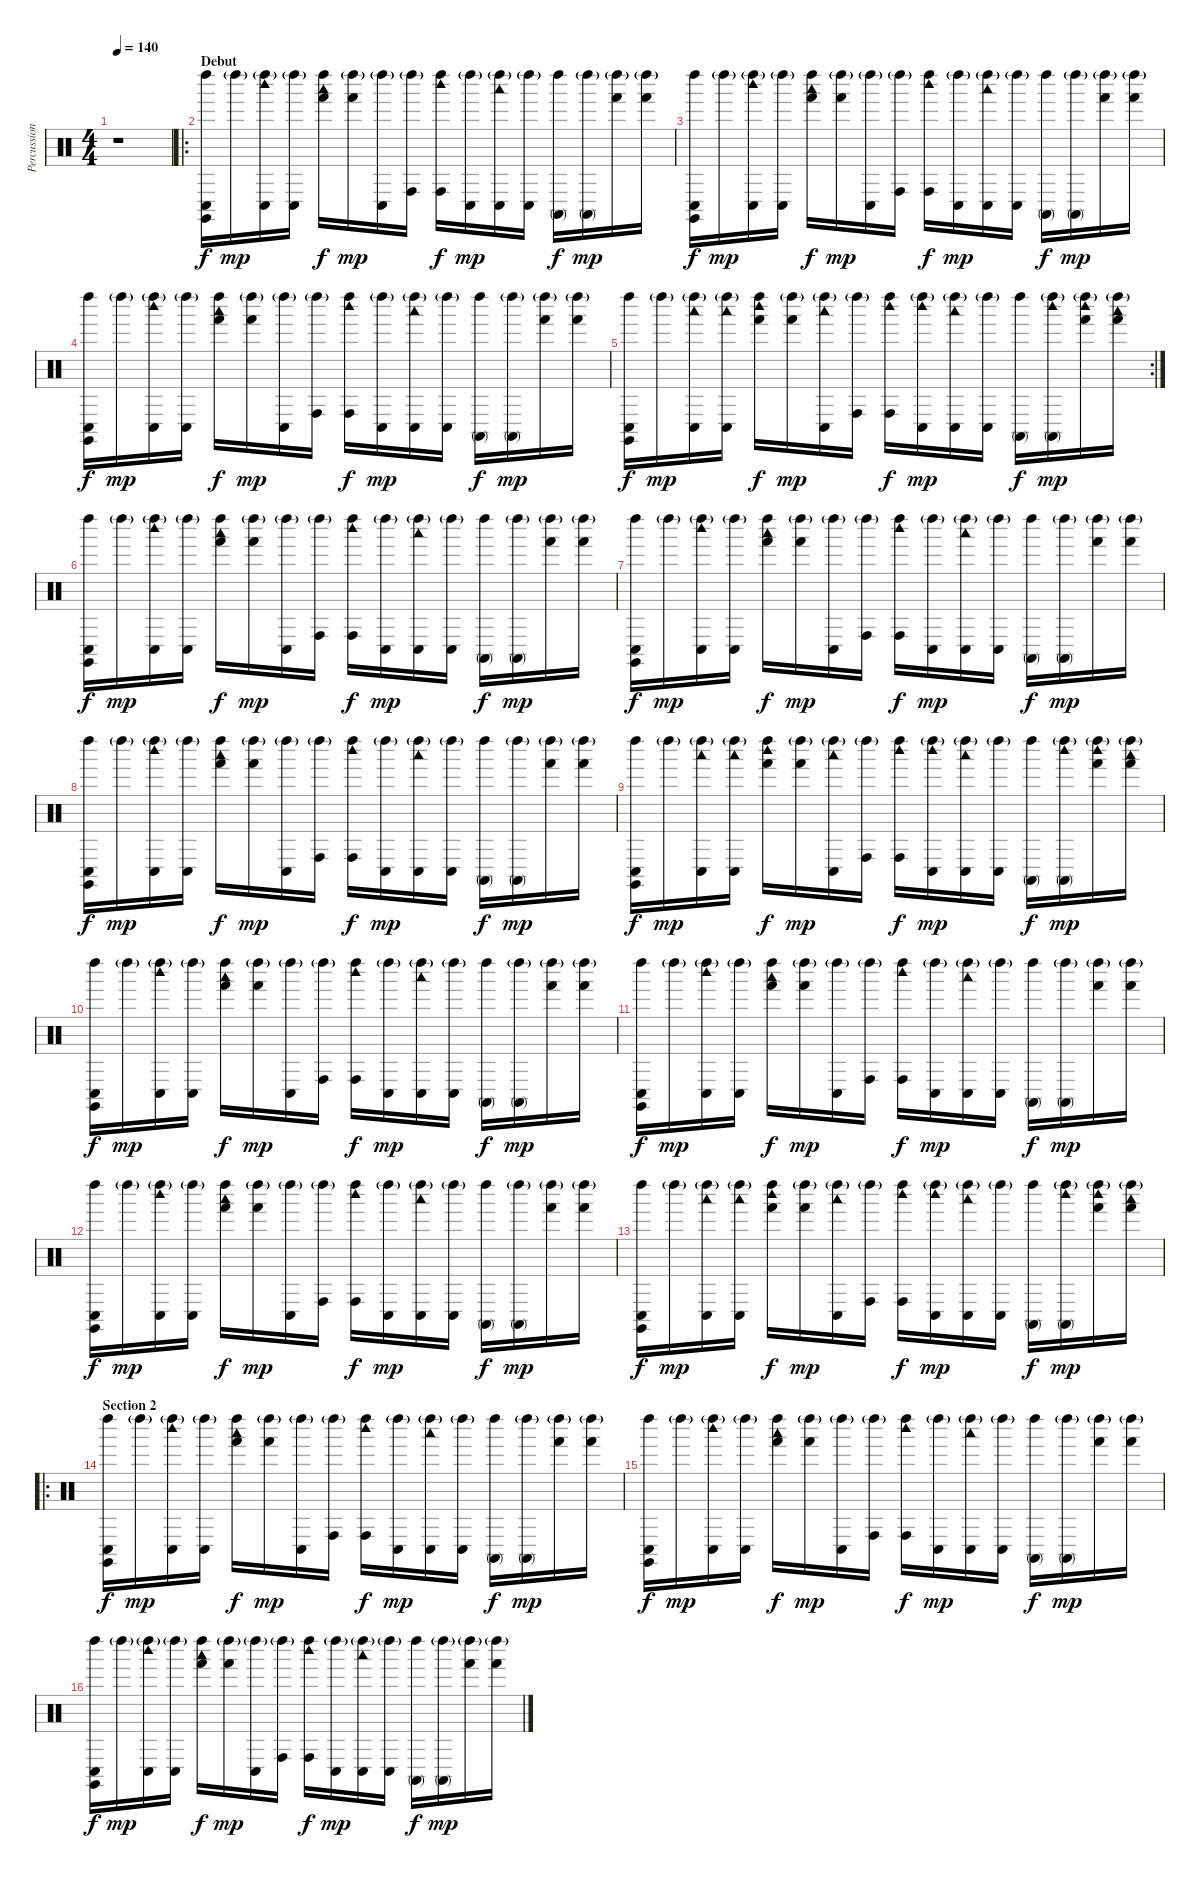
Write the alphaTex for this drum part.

\track ("Percussions" "Percussion") {instrument percussion}
\staff {score}
\articulation defaults
\ts (4 4)
\tempo 140
\clef neutral
\ks c
r.1{dy f} |
\ro
\section ("" "Debut")
("Conga low (hit)" "Claves (hit)" "Left Maraca (hit)").16 "Left Maraca (hit)"{g}.16{dy mp} ("Conga low (hit)" "Woodblock high (hit)" "Left Maraca (hit)"{g}).16 ("Conga low (hit)" "Left Maraca (hit)"{g}).16 ("Hand (hit)" "Woodblock low (hit)" "Left Maraca (hit)").16{dy f} ("Hand (hit)" "Left Maraca (hit)"{g}).16{dy mp} ("Conga low (hit)" "Left Maraca (hit)"{g}).16 ("Conga high (hit)" "Left Maraca (hit)"{g}).16 ("Conga high (hit)" "Woodblock high (hit)" "Left Maraca (hit)").16{dy f} ("Conga low (hit)" "Left Maraca (hit)"{g}).16{dy mp} ("Conga low (hit)" "Woodblock low (hit)" "Left Maraca (hit)"{g}).16 ("Conga low (hit)" "Left Maraca (hit)"{g}).16 ("Conga high (mute)" "Left Maraca (hit)").16{dy f} ("Conga high (mute)" "Left Maraca (hit)"{g}).16{dy mp} ("Hand (hit)" "Left Maraca (hit)"{g}).16 ("Hand (hit)" "Left Maraca (hit)"{g}).16 |
("Conga low (hit)" "Claves (hit)" "Left Maraca (hit)").16{dy f} "Left Maraca (hit)"{g}.16{dy mp} ("Conga low (hit)" "Woodblock high (hit)" "Left Maraca (hit)"{g}).16 ("Conga low (hit)" "Left Maraca (hit)"{g}).16 ("Hand (hit)" "Woodblock low (hit)" "Left Maraca (hit)").16{dy f} ("Hand (hit)" "Left Maraca (hit)"{g}).16{dy mp} ("Conga low (hit)" "Left Maraca (hit)"{g}).16 ("Conga high (hit)" "Left Maraca (hit)"{g}).16 ("Conga high (hit)" "Woodblock high (hit)" "Left Maraca (hit)").16{dy f} ("Conga low (hit)" "Left Maraca (hit)"{g}).16{dy mp} ("Conga low (hit)" "Woodblock low (hit)" "Left Maraca (hit)"{g}).16 ("Conga low (hit)" "Left Maraca (hit)"{g}).16 ("Conga high (mute)" "Left Maraca (hit)").16{dy f} ("Conga high (mute)" "Left Maraca (hit)"{g}).16{dy mp} ("Hand (hit)" "Left Maraca (hit)"{g}).16 ("Hand (hit)" "Left Maraca (hit)"{g}).16 |
("Conga low (hit)" "Claves (hit)" "Left Maraca (hit)").16{dy f} "Left Maraca (hit)"{g}.16{dy mp} ("Conga low (hit)" "Woodblock high (hit)" "Left Maraca (hit)"{g}).16 ("Conga low (hit)" "Left Maraca (hit)"{g}).16 ("Hand (hit)" "Woodblock low (hit)" "Left Maraca (hit)").16{dy f} ("Hand (hit)" "Left Maraca (hit)"{g}).16{dy mp} ("Conga low (hit)" "Left Maraca (hit)"{g}).16 ("Conga high (hit)" "Left Maraca (hit)"{g}).16 ("Conga high (hit)" "Woodblock high (hit)" "Left Maraca (hit)").16{dy f} ("Conga low (hit)" "Left Maraca (hit)"{g}).16{dy mp} ("Conga low (hit)" "Woodblock low (hit)" "Left Maraca (hit)"{g}).16 ("Conga low (hit)" "Left Maraca (hit)"{g}).16 ("Conga high (mute)" "Left Maraca (hit)").16{dy f} ("Conga high (mute)" "Left Maraca (hit)"{g}).16{dy mp} ("Hand (hit)" "Left Maraca (hit)"{g}).16 ("Hand (hit)" "Left Maraca (hit)"{g}).16 |
\rc 2
("Conga low (hit)" "Claves (hit)" "Left Maraca (hit)").16{dy f} "Left Maraca (hit)"{g}.16{dy mp} ("Conga low (hit)" "Woodblock low (hit)" "Left Maraca (hit)"{g}).16 ("Conga low (hit)" "Woodblock low (hit)" "Left Maraca (hit)"{g}).16 ("Hand (hit)" "Woodblock high (hit)" "Left Maraca (hit)").16{dy f} ("Hand (hit)" "Left Maraca (hit)"{g}).16{dy mp} ("Conga low (hit)" "Woodblock low (hit)" "Left Maraca (hit)"{g}).16 ("Conga high (hit)" "Left Maraca (hit)"{g}).16 ("Conga high (hit)" "Woodblock high (hit)" "Left Maraca (hit)").16{dy f} ("Conga low (hit)" "Woodblock high (hit)" "Left Maraca (hit)"{g}).16{dy mp} ("Conga low (hit)" "Woodblock low (hit)" "Left Maraca (hit)"{g}).16 ("Conga low (hit)" "Left Maraca (hit)"{g}).16 ("Conga high (mute)" "Left Maraca (hit)").16{dy f} ("Conga high (mute)" "Woodblock high (hit)" "Left Maraca (hit)"{g}).16{dy mp} ("Hand (hit)" "Woodblock high (hit)" "Left Maraca (hit)"{g}).16 ("Hand (hit)" "Woodblock low (hit)" "Left Maraca (hit)"{g}).16 |
("Conga low (hit)" "Claves (hit)" "Left Maraca (hit)").16{dy f} "Left Maraca (hit)"{g}.16{dy mp} ("Conga low (hit)" "Woodblock high (hit)" "Left Maraca (hit)"{g}).16 ("Conga low (hit)" "Left Maraca (hit)"{g}).16 ("Hand (hit)" "Woodblock low (hit)" "Left Maraca (hit)").16{dy f} ("Hand (hit)" "Left Maraca (hit)"{g}).16{dy mp} ("Conga low (hit)" "Left Maraca (hit)"{g}).16 ("Conga high (hit)" "Left Maraca (hit)"{g}).16 ("Conga high (hit)" "Woodblock high (hit)" "Left Maraca (hit)").16{dy f} ("Conga low (hit)" "Left Maraca (hit)"{g}).16{dy mp} ("Conga low (hit)" "Woodblock low (hit)" "Left Maraca (hit)"{g}).16 ("Conga low (hit)" "Left Maraca (hit)"{g}).16 ("Conga high (mute)" "Left Maraca (hit)").16{dy f} ("Conga high (mute)" "Left Maraca (hit)"{g}).16{dy mp} ("Hand (hit)" "Left Maraca (hit)"{g}).16 ("Hand (hit)" "Left Maraca (hit)"{g}).16 |
("Conga low (hit)" "Claves (hit)" "Left Maraca (hit)").16{dy f} "Left Maraca (hit)"{g}.16{dy mp} ("Conga low (hit)" "Woodblock high (hit)" "Left Maraca (hit)"{g}).16 ("Conga low (hit)" "Left Maraca (hit)"{g}).16 ("Hand (hit)" "Woodblock low (hit)" "Left Maraca (hit)").16{dy f} ("Hand (hit)" "Left Maraca (hit)"{g}).16{dy mp} ("Conga low (hit)" "Left Maraca (hit)"{g}).16 ("Conga high (hit)" "Left Maraca (hit)"{g}).16 ("Conga high (hit)" "Woodblock high (hit)" "Left Maraca (hit)").16{dy f} ("Conga low (hit)" "Left Maraca (hit)"{g}).16{dy mp} ("Conga low (hit)" "Woodblock low (hit)" "Left Maraca (hit)"{g}).16 ("Conga low (hit)" "Left Maraca (hit)"{g}).16 ("Conga high (mute)" "Left Maraca (hit)").16{dy f} ("Conga high (mute)" "Left Maraca (hit)"{g}).16{dy mp} ("Hand (hit)" "Left Maraca (hit)"{g}).16 ("Hand (hit)" "Left Maraca (hit)"{g}).16 |
("Conga low (hit)" "Claves (hit)" "Left Maraca (hit)").16{dy f} "Left Maraca (hit)"{g}.16{dy mp} ("Conga low (hit)" "Woodblock high (hit)" "Left Maraca (hit)"{g}).16 ("Conga low (hit)" "Left Maraca (hit)"{g}).16 ("Hand (hit)" "Woodblock low (hit)" "Left Maraca (hit)").16{dy f} ("Hand (hit)" "Left Maraca (hit)"{g}).16{dy mp} ("Conga low (hit)" "Left Maraca (hit)"{g}).16 ("Conga high (hit)" "Left Maraca (hit)"{g}).16 ("Conga high (hit)" "Woodblock high (hit)" "Left Maraca (hit)").16{dy f} ("Conga low (hit)" "Left Maraca (hit)"{g}).16{dy mp} ("Conga low (hit)" "Woodblock low (hit)" "Left Maraca (hit)"{g}).16 ("Conga low (hit)" "Left Maraca (hit)"{g}).16 ("Conga high (mute)" "Left Maraca (hit)").16{dy f} ("Conga high (mute)" "Left Maraca (hit)"{g}).16{dy mp} ("Hand (hit)" "Left Maraca (hit)"{g}).16 ("Hand (hit)" "Left Maraca (hit)"{g}).16 |
("Conga low (hit)" "Claves (hit)" "Left Maraca (hit)").16{dy f} "Left Maraca (hit)"{g}.16{dy mp} ("Conga low (hit)" "Woodblock low (hit)" "Left Maraca (hit)"{g}).16 ("Conga low (hit)" "Woodblock low (hit)" "Left Maraca (hit)"{g}).16 ("Hand (hit)" "Woodblock high (hit)" "Left Maraca (hit)").16{dy f} ("Hand (hit)" "Left Maraca (hit)"{g}).16{dy mp} ("Conga low (hit)" "Woodblock low (hit)" "Left Maraca (hit)"{g}).16 ("Conga high (hit)" "Left Maraca (hit)"{g}).16 ("Conga high (hit)" "Woodblock high (hit)" "Left Maraca (hit)").16{dy f} ("Conga low (hit)" "Woodblock high (hit)" "Left Maraca (hit)"{g}).16{dy mp} ("Conga low (hit)" "Woodblock low (hit)" "Left Maraca (hit)"{g}).16 ("Conga low (hit)" "Left Maraca (hit)"{g}).16 ("Conga high (mute)" "Left Maraca (hit)").16{dy f} ("Conga high (mute)" "Woodblock high (hit)" "Left Maraca (hit)"{g}).16{dy mp} ("Hand (hit)" "Woodblock high (hit)" "Left Maraca (hit)"{g}).16 ("Hand (hit)" "Woodblock low (hit)" "Left Maraca (hit)"{g}).16 |
("Conga low (hit)" "Claves (hit)" "Left Maraca (hit)").16{dy f} "Left Maraca (hit)"{g}.16{dy mp} ("Conga low (hit)" "Woodblock high (hit)" "Left Maraca (hit)"{g}).16 ("Conga low (hit)" "Left Maraca (hit)"{g}).16 ("Hand (hit)" "Woodblock low (hit)" "Left Maraca (hit)").16{dy f} ("Hand (hit)" "Left Maraca (hit)"{g}).16{dy mp} ("Conga low (hit)" "Left Maraca (hit)"{g}).16 ("Conga high (hit)" "Left Maraca (hit)"{g}).16 ("Conga high (hit)" "Woodblock high (hit)" "Left Maraca (hit)").16{dy f} ("Conga low (hit)" "Left Maraca (hit)"{g}).16{dy mp} ("Conga low (hit)" "Woodblock low (hit)" "Left Maraca (hit)"{g}).16 ("Conga low (hit)" "Left Maraca (hit)"{g}).16 ("Conga high (mute)" "Left Maraca (hit)").16{dy f} ("Conga high (mute)" "Left Maraca (hit)"{g}).16{dy mp} ("Hand (hit)" "Left Maraca (hit)"{g}).16 ("Hand (hit)" "Left Maraca (hit)"{g}).16 |
("Conga low (hit)" "Claves (hit)" "Left Maraca (hit)").16{dy f} "Left Maraca (hit)"{g}.16{dy mp} ("Conga low (hit)" "Woodblock high (hit)" "Left Maraca (hit)"{g}).16 ("Conga low (hit)" "Left Maraca (hit)"{g}).16 ("Hand (hit)" "Woodblock low (hit)" "Left Maraca (hit)").16{dy f} ("Hand (hit)" "Left Maraca (hit)"{g}).16{dy mp} ("Conga low (hit)" "Left Maraca (hit)"{g}).16 ("Conga high (hit)" "Left Maraca (hit)"{g}).16 ("Conga high (hit)" "Woodblock high (hit)" "Left Maraca (hit)").16{dy f} ("Conga low (hit)" "Left Maraca (hit)"{g}).16{dy mp} ("Conga low (hit)" "Woodblock low (hit)" "Left Maraca (hit)"{g}).16 ("Conga low (hit)" "Left Maraca (hit)"{g}).16 ("Conga high (mute)" "Left Maraca (hit)").16{dy f} ("Conga high (mute)" "Left Maraca (hit)"{g}).16{dy mp} ("Hand (hit)" "Left Maraca (hit)"{g}).16 ("Hand (hit)" "Left Maraca (hit)"{g}).16 |
("Conga low (hit)" "Claves (hit)" "Left Maraca (hit)").16{dy f} "Left Maraca (hit)"{g}.16{dy mp} ("Conga low (hit)" "Woodblock high (hit)" "Left Maraca (hit)"{g}).16 ("Conga low (hit)" "Left Maraca (hit)"{g}).16 ("Hand (hit)" "Woodblock low (hit)" "Left Maraca (hit)").16{dy f} ("Hand (hit)" "Left Maraca (hit)"{g}).16{dy mp} ("Conga low (hit)" "Left Maraca (hit)"{g}).16 ("Conga high (hit)" "Left Maraca (hit)"{g}).16 ("Conga high (hit)" "Woodblock high (hit)" "Left Maraca (hit)").16{dy f} ("Conga low (hit)" "Left Maraca (hit)"{g}).16{dy mp} ("Conga low (hit)" "Woodblock low (hit)" "Left Maraca (hit)"{g}).16 ("Conga low (hit)" "Left Maraca (hit)"{g}).16 ("Conga high (mute)" "Left Maraca (hit)").16{dy f} ("Conga high (mute)" "Left Maraca (hit)"{g}).16{dy mp} ("Hand (hit)" "Left Maraca (hit)"{g}).16 ("Hand (hit)" "Left Maraca (hit)"{g}).16 |
("Conga low (hit)" "Claves (hit)" "Left Maraca (hit)").16{dy f} "Left Maraca (hit)"{g}.16{dy mp} ("Conga low (hit)" "Woodblock low (hit)" "Left Maraca (hit)"{g}).16 ("Conga low (hit)" "Woodblock low (hit)" "Left Maraca (hit)"{g}).16 ("Hand (hit)" "Woodblock high (hit)" "Left Maraca (hit)").16{dy f} ("Hand (hit)" "Left Maraca (hit)"{g}).16{dy mp} ("Conga low (hit)" "Woodblock low (hit)" "Left Maraca (hit)"{g}).16 ("Conga high (hit)" "Left Maraca (hit)"{g}).16 ("Conga high (hit)" "Woodblock high (hit)" "Left Maraca (hit)").16{dy f} ("Conga low (hit)" "Woodblock high (hit)" "Left Maraca (hit)"{g}).16{dy mp} ("Conga low (hit)" "Woodblock low (hit)" "Left Maraca (hit)"{g}).16 ("Conga low (hit)" "Left Maraca (hit)"{g}).16 ("Conga high (mute)" "Left Maraca (hit)").16{dy f} ("Conga high (mute)" "Woodblock high (hit)" "Left Maraca (hit)"{g}).16{dy mp} ("Hand (hit)" "Woodblock high (hit)" "Left Maraca (hit)"{g}).16 ("Hand (hit)" "Woodblock low (hit)" "Left Maraca (hit)"{g}).16 |
\ro
\section ("" "Section 2")
("Conga low (hit)" "Claves (hit)" "Left Maraca (hit)").16{dy f} "Left Maraca (hit)"{g}.16{dy mp} ("Conga low (hit)" "Woodblock high (hit)" "Left Maraca (hit)"{g}).16 ("Conga low (hit)" "Left Maraca (hit)"{g}).16 ("Hand (hit)" "Woodblock low (hit)" "Left Maraca (hit)").16{dy f} ("Hand (hit)" "Left Maraca (hit)"{g}).16{dy mp} ("Conga low (hit)" "Left Maraca (hit)"{g}).16 ("Conga high (hit)" "Left Maraca (hit)"{g}).16 ("Conga high (hit)" "Woodblock high (hit)" "Left Maraca (hit)").16{dy f} ("Conga low (hit)" "Left Maraca (hit)"{g}).16{dy mp} ("Conga low (hit)" "Woodblock low (hit)" "Left Maraca (hit)"{g}).16 ("Conga low (hit)" "Left Maraca (hit)"{g}).16 ("Conga high (mute)" "Left Maraca (hit)").16{dy f} ("Conga high (mute)" "Left Maraca (hit)"{g}).16{dy mp} ("Hand (hit)" "Left Maraca (hit)"{g}).16 ("Hand (hit)" "Left Maraca (hit)"{g}).16 |
("Conga low (hit)" "Claves (hit)" "Left Maraca (hit)").16{dy f} "Left Maraca (hit)"{g}.16{dy mp} ("Conga low (hit)" "Woodblock high (hit)" "Left Maraca (hit)"{g}).16 ("Conga low (hit)" "Left Maraca (hit)"{g}).16 ("Hand (hit)" "Woodblock low (hit)" "Left Maraca (hit)").16{dy f} ("Hand (hit)" "Left Maraca (hit)"{g}).16{dy mp} ("Conga low (hit)" "Left Maraca (hit)"{g}).16 ("Conga high (hit)" "Left Maraca (hit)"{g}).16 ("Conga high (hit)" "Woodblock high (hit)" "Left Maraca (hit)").16{dy f} ("Conga low (hit)" "Left Maraca (hit)"{g}).16{dy mp} ("Conga low (hit)" "Woodblock low (hit)" "Left Maraca (hit)"{g}).16 ("Conga low (hit)" "Left Maraca (hit)"{g}).16 ("Conga high (mute)" "Left Maraca (hit)").16{dy f} ("Conga high (mute)" "Left Maraca (hit)"{g}).16{dy mp} ("Hand (hit)" "Left Maraca (hit)"{g}).16 ("Hand (hit)" "Left Maraca (hit)"{g}).16 |
("Conga low (hit)" "Claves (hit)" "Left Maraca (hit)").16{dy f} "Left Maraca (hit)"{g}.16{dy mp} ("Conga low (hit)" "Woodblock high (hit)" "Left Maraca (hit)"{g}).16 ("Conga low (hit)" "Left Maraca (hit)"{g}).16 ("Hand (hit)" "Woodblock low (hit)" "Left Maraca (hit)").16{dy f} ("Hand (hit)" "Left Maraca (hit)"{g}).16{dy mp} ("Conga low (hit)" "Left Maraca (hit)"{g}).16 ("Conga high (hit)" "Left Maraca (hit)"{g}).16 ("Conga high (hit)" "Woodblock high (hit)" "Left Maraca (hit)").16{dy f} ("Conga low (hit)" "Left Maraca (hit)"{g}).16{dy mp} ("Conga low (hit)" "Woodblock low (hit)" "Left Maraca (hit)"{g}).16 ("Conga low (hit)" "Left Maraca (hit)"{g}).16 ("Conga high (mute)" "Left Maraca (hit)").16{dy f} ("Conga high (mute)" "Left Maraca (hit)"{g}).16{dy mp} ("Hand (hit)" "Left Maraca (hit)"{g}).16 ("Hand (hit)" "Left Maraca (hit)"{g}).16
